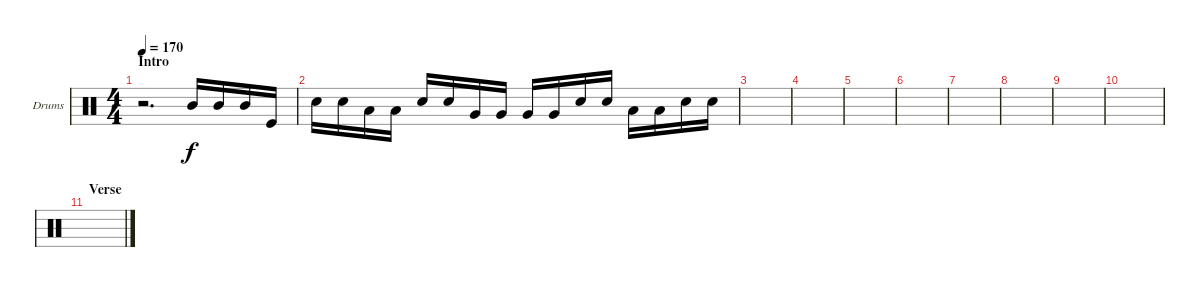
\bracketExtendMode groupsimilarinstruments
\firstSystemTrackNameOrientation horizontal
\otherSystemsTrackNameOrientation horizontal
\track ("Drumkit" "Drums") {instrument percussion}
\staff {score}
\articulation defaults
\ts (4 4)
\section ("" "Intro")
\tempo 170
\clef neutral
\ks c
r.2{d dy f} "Mid Tom (hit)".16 "Mid Tom (hit)".16 "Mid Tom (hit)".16 "Kick (hit)".16 |
"Snare (hit) 2".16 "Snare (hit) 2".16 "Low Tom (hit)".16 "Low Tom (hit)".16 "Snare (hit) 2".16 "Snare (hit) 2".16 "Very Low Tom (hit)".16 "Very Low Tom (hit)".16 "Very Low Tom (hit)".16 "Very Low Tom (hit)".16 "Snare (hit) 2".16 "Snare (hit) 2".16 "Low Tom (hit)".16 "Low Tom (hit)".16 "Snare (hit) 2".16 "Snare (hit) 2".16 |
|
|
|
|
|
|
|
|
\section ("" "Verse")
